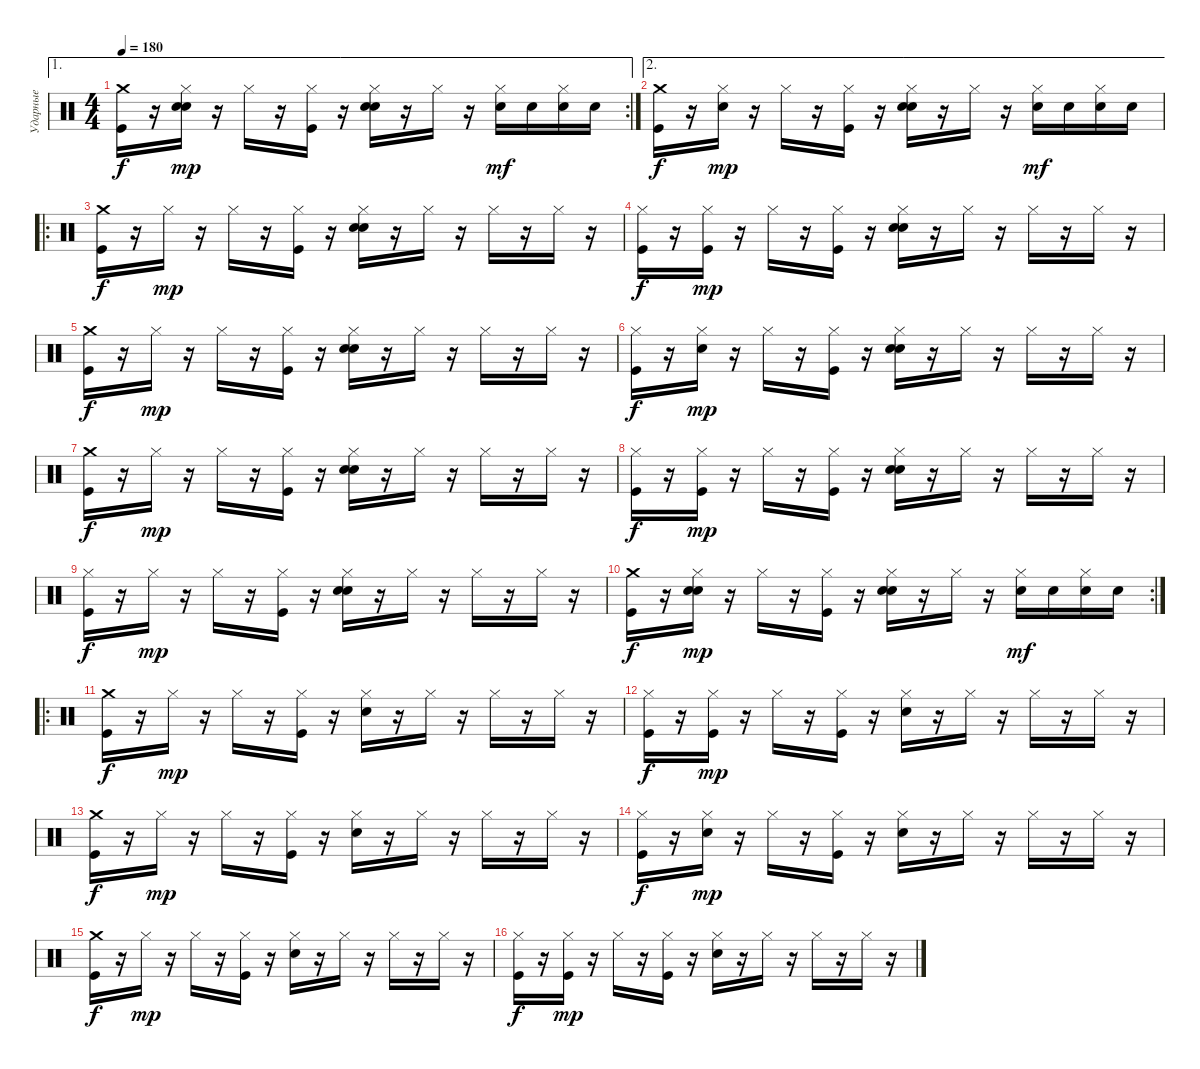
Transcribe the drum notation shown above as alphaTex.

\track ("Ударные" "Ударные") {instrument percussion}
\staff {score}
\articulation defaults
\ae 1
\rc 2
\ts (4 4)
\tempo 180
\clef neutral
\ks c
("Crash medium (hit)" "Kick (hit)").16{dy f} r.16 ("Hi-Hat (closed)" "Electric Snare (hit)" "Hand Clap (hit)").16{dy mp} r.16 "Hi-Hat (closed)".16 r.16 ("Hi-Hat (closed)" "Kick (hit)").16 r.16 ("Hi-Hat (closed)" "Electric Snare (hit)" "Hand Clap (hit)").16 r.16 "Hi-Hat (closed)".16 r.16 ("Hi-Hat (closed)" "Electric Snare (hit)").16{dy mf} "Electric Snare (hit)".16 ("Hi-Hat (closed)" "Electric Snare (hit)").16 "Electric Snare (hit)".16 |
\ae 2
("Crash medium (hit)" "Kick (hit)").16{dy f} r.16 ("Hi-Hat (closed)" "Electric Snare (hit)").16{dy mp} r.16 "Hi-Hat (closed)".16 r.16 ("Hi-Hat (closed)" "Kick (hit)").16 r.16 ("Hi-Hat (closed)" "Electric Snare (hit)" "Hand Clap (hit)").16 r.16 "Hi-Hat (closed)".16 r.16 ("Hi-Hat (closed)" "Electric Snare (hit)").16{dy mf} "Electric Snare (hit)".16 ("Hi-Hat (closed)" "Electric Snare (hit)").16 "Electric Snare (hit)".16 |
\ro
("Crash medium (hit)" "Kick (hit)").16{dy f} r.16 "Hi-Hat (closed)".16{dy mp} r.16 "Hi-Hat (closed)".16 r.16 ("Hi-Hat (closed)" "Kick (hit)").16 r.16 ("Hi-Hat (closed)" "Electric Snare (hit)" "Hand Clap (hit)").16 r.16 "Hi-Hat (closed)".16 r.16 "Hi-Hat (closed)".16 r.16 "Hi-Hat (closed)".16 r.16 |
("Hi-Hat (closed)" "Kick (hit)").16{dy f} r.16 ("Hi-Hat (closed)" "Kick (hit)").16{dy mp} r.16 "Hi-Hat (closed)".16 r.16 ("Hi-Hat (closed)" "Kick (hit)").16 r.16 ("Hi-Hat (closed)" "Electric Snare (hit)" "Hand Clap (hit)").16 r.16 "Hi-Hat (closed)".16 r.16 "Hi-Hat (closed)".16 r.16 "Hi-Hat (closed)".16 r.16 |
("Crash medium (hit)" "Kick (hit)").16{dy f} r.16 "Hi-Hat (closed)".16{dy mp} r.16 "Hi-Hat (closed)".16 r.16 ("Hi-Hat (closed)" "Kick (hit)").16 r.16 ("Hi-Hat (closed)" "Electric Snare (hit)" "Hand Clap (hit)").16 r.16 "Hi-Hat (closed)".16 r.16 "Hi-Hat (closed)".16 r.16 "Hi-Hat (closed)".16 r.16 |
("Hi-Hat (closed)" "Kick (hit)").16{dy f} r.16 ("Hi-Hat (closed)" "Electric Snare (hit)").16{dy mp} r.16 "Hi-Hat (closed)".16 r.16 ("Hi-Hat (closed)" "Kick (hit)").16 r.16 ("Hi-Hat (closed)" "Electric Snare (hit)" "Hand Clap (hit)").16 r.16 "Hi-Hat (closed)".16 r.16 "Hi-Hat (closed)".16 r.16 "Hi-Hat (closed)".16 r.16 |
("Crash medium (hit)" "Kick (hit)").16{dy f} r.16 "Hi-Hat (closed)".16{dy mp} r.16 "Hi-Hat (closed)".16 r.16 ("Hi-Hat (closed)" "Kick (hit)").16 r.16 ("Hi-Hat (closed)" "Electric Snare (hit)" "Hand Clap (hit)").16 r.16 "Hi-Hat (closed)".16 r.16 "Hi-Hat (closed)".16 r.16 "Hi-Hat (closed)".16 r.16 |
("Hi-Hat (closed)" "Kick (hit)").16{dy f} r.16 ("Hi-Hat (closed)" "Kick (hit)").16{dy mp} r.16 "Hi-Hat (closed)".16 r.16 ("Hi-Hat (closed)" "Kick (hit)").16 r.16 ("Hi-Hat (closed)" "Electric Snare (hit)" "Hand Clap (hit)").16 r.16 "Hi-Hat (closed)".16 r.16 "Hi-Hat (closed)".16 r.16 "Hi-Hat (closed)".16 r.16 |
("Hi-Hat (closed)" "Kick (hit)").16{dy f} r.16 "Hi-Hat (closed)".16{dy mp} r.16 "Hi-Hat (closed)".16 r.16 ("Hi-Hat (closed)" "Kick (hit)").16 r.16 ("Hi-Hat (closed)" "Electric Snare (hit)" "Hand Clap (hit)").16 r.16 "Hi-Hat (closed)".16 r.16 "Hi-Hat (closed)".16 r.16 "Hi-Hat (closed)".16 r.16 |
\rc 2
("Crash medium (hit)" "Kick (hit)").16{dy f} r.16 ("Hi-Hat (closed)" "Electric Snare (hit)" "Hand Clap (hit)").16{dy mp} r.16 "Hi-Hat (closed)".16 r.16 ("Hi-Hat (closed)" "Kick (hit)").16 r.16 ("Hi-Hat (closed)" "Electric Snare (hit)" "Hand Clap (hit)").16 r.16 "Hi-Hat (closed)".16 r.16 ("Hi-Hat (closed)" "Electric Snare (hit)").16{dy mf} "Electric Snare (hit)".16 ("Hi-Hat (closed)" "Electric Snare (hit)").16 "Electric Snare (hit)".16 |
\ro
("Crash medium (hit)" "Kick (hit)").16{dy f} r.16 "Hi-Hat (closed)".16{dy mp} r.16 "Hi-Hat (closed)".16 r.16 ("Hi-Hat (closed)" "Kick (hit)").16 r.16 ("Hi-Hat (closed)" "Electric Snare (hit)").16 r.16 "Hi-Hat (closed)".16 r.16 "Hi-Hat (closed)".16 r.16 "Hi-Hat (closed)".16 r.16 |
("Hi-Hat (closed)" "Kick (hit)").16{dy f} r.16 ("Hi-Hat (closed)" "Kick (hit)").16{dy mp} r.16 "Hi-Hat (closed)".16 r.16 ("Hi-Hat (closed)" "Kick (hit)").16 r.16 ("Hi-Hat (closed)" "Electric Snare (hit)").16 r.16 "Hi-Hat (closed)".16 r.16 "Hi-Hat (closed)".16 r.16 "Hi-Hat (closed)".16 r.16 |
("Crash medium (hit)" "Kick (hit)").16{dy f} r.16 "Hi-Hat (closed)".16{dy mp} r.16 "Hi-Hat (closed)".16 r.16 ("Hi-Hat (closed)" "Kick (hit)").16 r.16 ("Hi-Hat (closed)" "Electric Snare (hit)").16 r.16 "Hi-Hat (closed)".16 r.16 "Hi-Hat (closed)".16 r.16 "Hi-Hat (closed)".16 r.16 |
("Hi-Hat (closed)" "Kick (hit)").16{dy f} r.16 ("Hi-Hat (closed)" "Electric Snare (hit)").16{dy mp} r.16 "Hi-Hat (closed)".16 r.16 ("Hi-Hat (closed)" "Kick (hit)").16 r.16 ("Hi-Hat (closed)" "Electric Snare (hit)").16 r.16 "Hi-Hat (closed)".16 r.16 "Hi-Hat (closed)".16 r.16 "Hi-Hat (closed)".16 r.16 |
("Crash medium (hit)" "Kick (hit)").16{dy f} r.16 "Hi-Hat (closed)".16{dy mp} r.16 "Hi-Hat (closed)".16 r.16 ("Hi-Hat (closed)" "Kick (hit)").16 r.16 ("Hi-Hat (closed)" "Electric Snare (hit)").16 r.16 "Hi-Hat (closed)".16 r.16 "Hi-Hat (closed)".16 r.16 "Hi-Hat (closed)".16 r.16 |
("Hi-Hat (closed)" "Kick (hit)").16{dy f} r.16 ("Hi-Hat (closed)" "Kick (hit)").16{dy mp} r.16 "Hi-Hat (closed)".16 r.16 ("Hi-Hat (closed)" "Kick (hit)").16 r.16 ("Hi-Hat (closed)" "Electric Snare (hit)").16 r.16 "Hi-Hat (closed)".16 r.16 "Hi-Hat (closed)".16 r.16 "Hi-Hat (closed)".16 r.16
